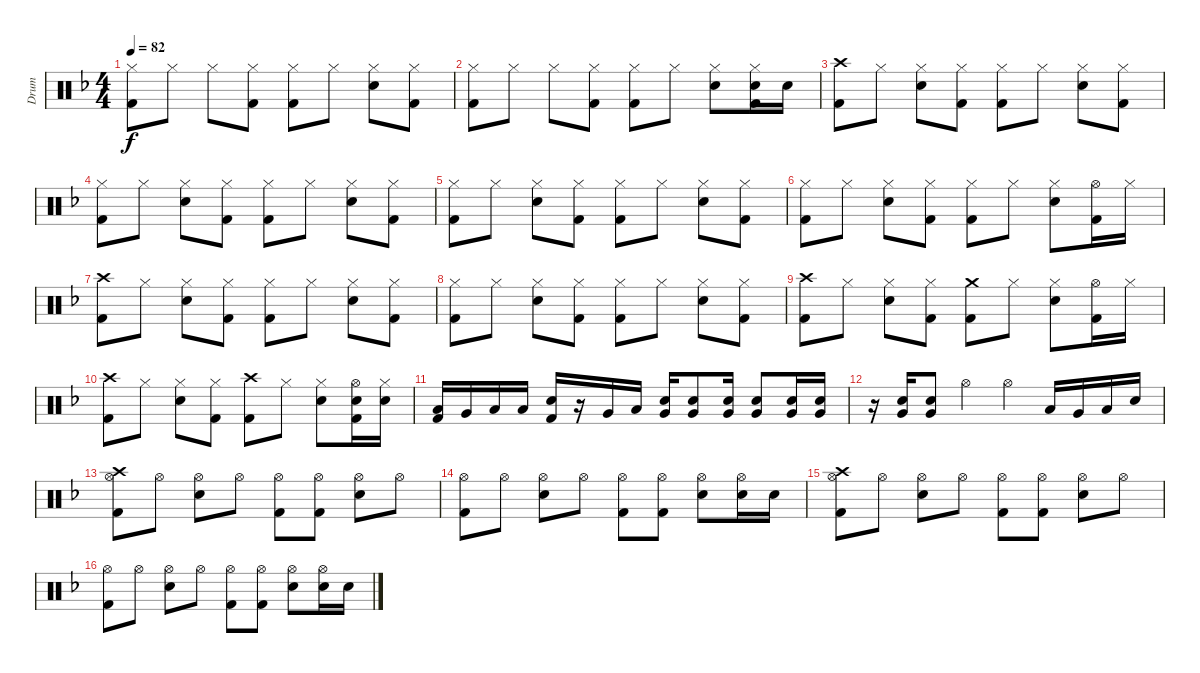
\track ("Drum" "Drum") {instrument percussion}
\staff {score}
\articulation defaults
\ts (4 4)
\tempo 82
\clef neutral
\ks f
("Hi-Hat (closed)" "Kick (hit) 2").8{dy f} "Hi-Hat (closed)".8 "Hi-Hat (closed)".8 ("Hi-Hat (closed)" "Kick (hit) 2").8 ("Hi-Hat (closed)" "Kick (hit) 2").8 "Hi-Hat (closed)".8 ("Hi-Hat (closed)" "Electric Snare (hit)").8 ("Hi-Hat (closed)" "Kick (hit) 2").8 |
("Hi-Hat (closed)" "Kick (hit) 2").8 "Hi-Hat (closed)".8 "Hi-Hat (closed)".8 ("Hi-Hat (closed)" "Kick (hit) 2").8 ("Hi-Hat (closed)" "Kick (hit) 2").8 "Hi-Hat (closed)".8 ("Hi-Hat (closed)" "Electric Snare (hit)").8 ("Hi-Hat (closed)" "Electric Snare (hit)" "Kick (hit) 2").16 "Electric Snare (hit)".16 |
("Crash high (hit)" "Kick (hit) 2").8 "Hi-Hat (closed)".8 ("Hi-Hat (closed)" "Electric Snare (hit)").8 ("Hi-Hat (closed)" "Kick (hit) 2").8 ("Hi-Hat (closed)" "Kick (hit) 2").8 "Hi-Hat (closed)".8 ("Hi-Hat (closed)" "Electric Snare (hit)").8 ("Hi-Hat (closed)" "Kick (hit) 2").8 |
("Hi-Hat (closed)" "Kick (hit) 2").8 "Hi-Hat (closed)".8 ("Hi-Hat (closed)" "Electric Snare (hit)").8 ("Hi-Hat (closed)" "Kick (hit) 2").8 ("Hi-Hat (closed)" "Kick (hit) 2").8 "Hi-Hat (closed)".8 ("Hi-Hat (closed)" "Electric Snare (hit)").8 ("Hi-Hat (closed)" "Kick (hit) 2").8 |
("Hi-Hat (closed)" "Kick (hit) 2").8 "Hi-Hat (closed)".8 ("Hi-Hat (closed)" "Electric Snare (hit)").8 ("Hi-Hat (closed)" "Kick (hit) 2").8 ("Hi-Hat (closed)" "Kick (hit) 2").8 "Hi-Hat (closed)".8 ("Hi-Hat (closed)" "Electric Snare (hit)").8 ("Hi-Hat (closed)" "Kick (hit) 2").8 |
("Hi-Hat (closed)" "Kick (hit) 2").8 "Hi-Hat (closed)".8 ("Hi-Hat (closed)" "Electric Snare (hit)").8 ("Hi-Hat (closed)" "Kick (hit) 2").8 ("Hi-Hat (closed)" "Kick (hit) 2").8 "Hi-Hat (closed)".8 ("Hi-Hat (closed)" "Electric Snare (hit)").8 ("Hi-Hat (open)" "Kick (hit) 2").16 "Hi-Hat (closed)".16 |
("Crash high (hit)" "Kick (hit) 2").8 "Hi-Hat (closed)".8 ("Hi-Hat (closed)" "Electric Snare (hit)").8 ("Hi-Hat (closed)" "Kick (hit) 2").8 ("Hi-Hat (closed)" "Kick (hit) 2").8 "Hi-Hat (closed)".8 ("Hi-Hat (closed)" "Electric Snare (hit)").8 ("Hi-Hat (closed)" "Kick (hit) 2").8 |
("Hi-Hat (closed)" "Kick (hit) 2").8 "Hi-Hat (closed)".8 ("Hi-Hat (closed)" "Electric Snare (hit)").8 ("Hi-Hat (closed)" "Kick (hit) 2").8 ("Hi-Hat (closed)" "Kick (hit) 2").8 "Hi-Hat (closed)".8 ("Hi-Hat (closed)" "Electric Snare (hit)").8 ("Hi-Hat (closed)" "Kick (hit) 2").8 |
("Crash high (hit)" "Kick (hit) 2").8 "Hi-Hat (closed)".8 ("Hi-Hat (closed)" "Electric Snare (hit)").8 ("Hi-Hat (closed)" "Kick (hit) 2").8 ("Crash medium (hit)" "Kick (hit) 2").8 "Hi-Hat (closed)".8 ("Hi-Hat (closed)" "Electric Snare (hit)").8 ("Hi-Hat (open)" "Kick (hit) 2").16 "Hi-Hat (closed)".16 |
("Crash high (hit)" "Kick (hit) 2").8 "Hi-Hat (closed)".8 ("Hi-Hat (closed)" "Electric Snare (hit)").8 ("Hi-Hat (closed)" "Kick (hit) 2").8 ("Crash high (hit)" "Kick (hit) 2").8 "Hi-Hat (closed)".8 ("Hi-Hat (closed)" "Electric Snare (hit)").8 ("Hi-Hat (open)" "Electric Snare (hit)" "Kick (hit) 2").16 ("Hi-Hat (closed)" "Electric Snare (hit)").16 |
("Low Tom (hit)" "Kick (hit) 2").16 "Very Low Tom (hit)".16 "Low Floor Tom (hit)".16 "Low Floor Tom (hit)".16 ("Electric Snare (hit)" "Kick (hit) 2").16 r.16 "Very Low Tom (hit)".16 "Low Floor Tom (hit)".16 ("Very Low Tom (hit)" "Electric Snare (hit)").16 ("Very Low Tom (hit)" "Electric Snare (hit)").8 ("Very Low Tom (hit)" "Electric Snare (hit)").16 ("Very Low Tom (hit)" "Electric Snare (hit)").8 ("Very Low Tom (hit)" "Electric Snare (hit)").16 ("Very Low Tom (hit)" "Electric Snare (hit)").16 |
r.16 ("Very Low Tom (hit)" "Electric Snare (hit)").16 ("Very Low Tom (hit)" "Electric Snare (hit)").8 "Hi-Hat (open)".4 "Hi-Hat (open)".4 "Low Tom (hit)".16 "Very Low Tom (hit)".16 "Low Floor Tom (hit)".16 "Electric Snare (hit)".16 |
("Crash high (hit)" "Hi-Hat (open)" "Kick (hit) 2").8 "Hi-Hat (open)".8 ("Hi-Hat (open)" "Electric Snare (hit)").8 "Hi-Hat (open)".8 ("Hi-Hat (open)" "Kick (hit) 2").8 ("Hi-Hat (open)" "Kick (hit) 2").8 ("Hi-Hat (open)" "Electric Snare (hit)").8 "Hi-Hat (open)".8 |
("Hi-Hat (open)" "Kick (hit) 2").8 "Hi-Hat (open)".8 ("Hi-Hat (open)" "Electric Snare (hit)").8 "Hi-Hat (open)".8 ("Hi-Hat (open)" "Kick (hit) 2").8 ("Hi-Hat (open)" "Kick (hit) 2").8 ("Hi-Hat (open)" "Electric Snare (hit)").8 ("Hi-Hat (open)" "Electric Snare (hit)").16 "Electric Snare (hit)".16 |
("Crash high (hit)" "Hi-Hat (open)" "Kick (hit) 2").8 "Hi-Hat (open)".8 ("Hi-Hat (open)" "Electric Snare (hit)").8 "Hi-Hat (open)".8 ("Hi-Hat (open)" "Kick (hit) 2").8 ("Hi-Hat (open)" "Kick (hit) 2").8 ("Hi-Hat (open)" "Electric Snare (hit)").8 "Hi-Hat (open)".8 |
("Hi-Hat (open)" "Kick (hit) 2").8 "Hi-Hat (open)".8 ("Hi-Hat (open)" "Electric Snare (hit)").8 "Hi-Hat (open)".8 ("Hi-Hat (open)" "Kick (hit) 2").8 ("Hi-Hat (open)" "Kick (hit) 2").8 ("Hi-Hat (open)" "Electric Snare (hit)").8 ("Hi-Hat (open)" "Electric Snare (hit)").16 "Electric Snare (hit)".16
